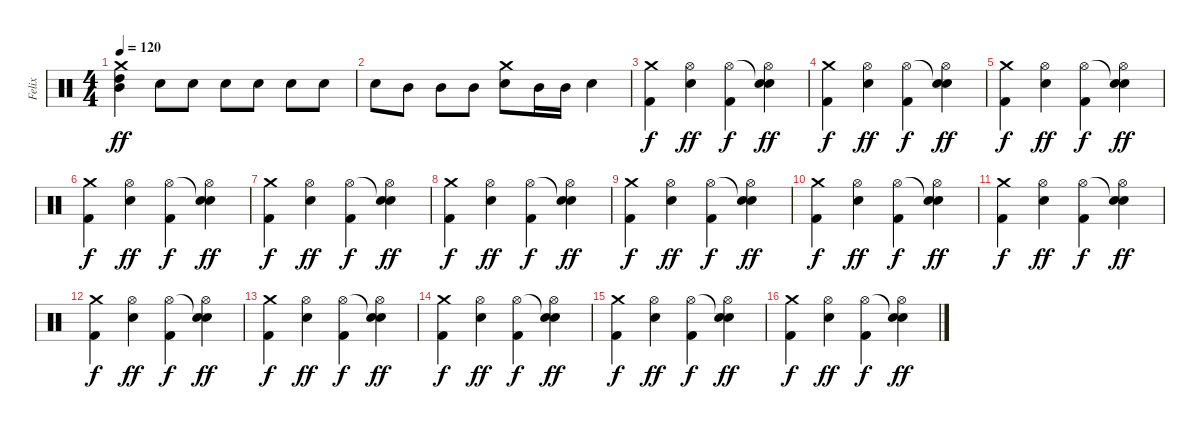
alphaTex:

\track ("Felix" "Felix") {instrument percussion}
\staff {score}
\articulation defaults
\ts (4 4)
\tempo 120
\clef neutral
\ks c
("Crash medium (hit)" "Mid Tom (hit)" "High Tom (hit)").4{dy ff} "Electric Snare (hit)".8 "Electric Snare (hit)".8 "Electric Snare (hit)".8 "Electric Snare (hit)".8 "Electric Snare (hit)".8 "Electric Snare (hit)".8 |
"Electric Snare (hit)".8 "Mid Tom (hit)".8 "Mid Tom (hit)".8 "Mid Tom (hit)".8 ("Crash medium (hit)" "Electric Snare (hit)").8 "Mid Tom (hit)".16 "Mid Tom (hit)".16 "Electric Snare (hit)".4 |
("Crash medium (hit)" "Kick (hit) 2").4{dy f} ("Hi-Hat (open)" "Electric Snare (hit)").4{dy ff} ("Hi-Hat (open)" "Kick (hit) 2").4{dy f} ("Snare (hit)"{t} "Hi-Hat (open)" "Electric Snare (hit)").4{dy ff} |
("Crash medium (hit)" "Kick (hit) 2").4{dy f} ("Hi-Hat (open)" "Electric Snare (hit)").4{dy ff} ("Hi-Hat (open)" "Kick (hit) 2").4{dy f} ("Snare (hit)"{t} "Hi-Hat (open)" "Electric Snare (hit)").4{dy ff} |
("Crash medium (hit)" "Kick (hit) 2").4{dy f} ("Hi-Hat (open)" "Electric Snare (hit)").4{dy ff} ("Hi-Hat (open)" "Kick (hit) 2").4{dy f} ("Snare (hit)"{t} "Hi-Hat (open)" "Electric Snare (hit)").4{dy ff} |
("Crash medium (hit)" "Kick (hit) 2").4{dy f} ("Hi-Hat (open)" "Electric Snare (hit)").4{dy ff} ("Hi-Hat (open)" "Kick (hit) 2").4{dy f} ("Snare (hit)"{t} "Hi-Hat (open)" "Electric Snare (hit)").4{dy ff} |
("Crash medium (hit)" "Kick (hit) 2").4{dy f} ("Hi-Hat (open)" "Electric Snare (hit)").4{dy ff} ("Hi-Hat (open)" "Kick (hit) 2").4{dy f} ("Snare (hit)"{t} "Hi-Hat (open)" "Electric Snare (hit)").4{dy ff} |
("Crash medium (hit)" "Kick (hit) 2").4{dy f} ("Hi-Hat (open)" "Electric Snare (hit)").4{dy ff} ("Hi-Hat (open)" "Kick (hit) 2").4{dy f} ("Snare (hit)"{t} "Hi-Hat (open)" "Electric Snare (hit)").4{dy ff} |
("Crash medium (hit)" "Kick (hit) 2").4{dy f} ("Hi-Hat (open)" "Electric Snare (hit)").4{dy ff} ("Hi-Hat (open)" "Kick (hit) 2").4{dy f} ("Snare (hit)"{t} "Hi-Hat (open)" "Electric Snare (hit)").4{dy ff} |
("Crash medium (hit)" "Kick (hit) 2").4{dy f} ("Hi-Hat (open)" "Electric Snare (hit)").4{dy ff} ("Hi-Hat (open)" "Kick (hit) 2").4{dy f} ("Snare (hit)"{t} "Hi-Hat (open)" "Electric Snare (hit)").4{dy ff} |
("Crash medium (hit)" "Kick (hit) 2").4{dy f} ("Hi-Hat (open)" "Electric Snare (hit)").4{dy ff} ("Hi-Hat (open)" "Kick (hit) 2").4{dy f} ("Snare (hit)"{t} "Hi-Hat (open)" "Electric Snare (hit)").4{dy ff} |
("Crash medium (hit)" "Kick (hit) 2").4{dy f} ("Hi-Hat (open)" "Electric Snare (hit)").4{dy ff} ("Hi-Hat (open)" "Kick (hit) 2").4{dy f} ("Snare (hit)"{t} "Hi-Hat (open)" "Electric Snare (hit)").4{dy ff} |
("Crash medium (hit)" "Kick (hit) 2").4{dy f} ("Hi-Hat (open)" "Electric Snare (hit)").4{dy ff} ("Hi-Hat (open)" "Kick (hit) 2").4{dy f} ("Snare (hit)"{t} "Hi-Hat (open)" "Electric Snare (hit)").4{dy ff} |
("Crash medium (hit)" "Kick (hit) 2").4{dy f} ("Hi-Hat (open)" "Electric Snare (hit)").4{dy ff} ("Hi-Hat (open)" "Kick (hit) 2").4{dy f} ("Snare (hit)"{t} "Hi-Hat (open)" "Electric Snare (hit)").4{dy ff} |
("Crash medium (hit)" "Kick (hit) 2").4{dy f} ("Hi-Hat (open)" "Electric Snare (hit)").4{dy ff} ("Hi-Hat (open)" "Kick (hit) 2").4{dy f} ("Snare (hit)"{t} "Hi-Hat (open)" "Electric Snare (hit)").4{dy ff} |
("Crash medium (hit)" "Kick (hit) 2").4{dy f} ("Hi-Hat (open)" "Electric Snare (hit)").4{dy ff} ("Hi-Hat (open)" "Kick (hit) 2").4{dy f} ("Snare (hit)"{t} "Hi-Hat (open)" "Electric Snare (hit)").4{dy ff}
